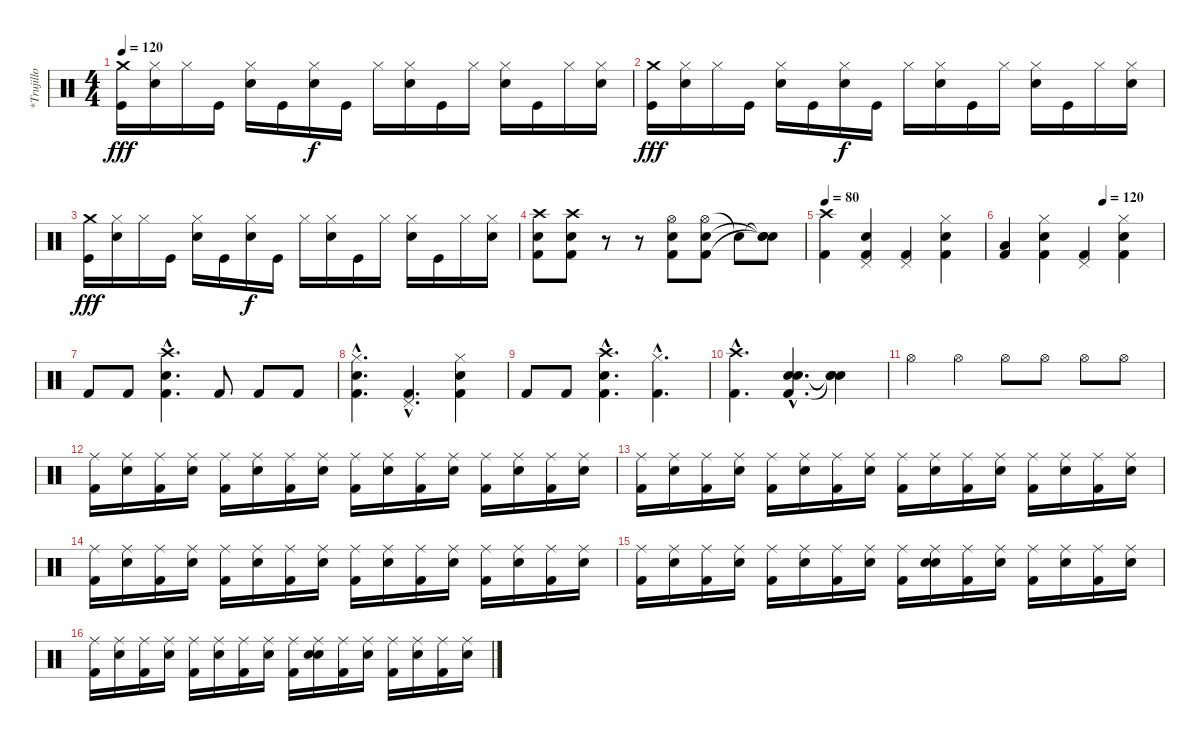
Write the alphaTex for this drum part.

\track ("*Trujillo" "*Trujillo") {instrument percussion}
\staff {score}
\articulation defaults
\ts (4 4)
\tempo 120
\clef neutral
\ks c
("Kick (hit)" "Crash medium (hit)").16{dy fff} ("Snare (hit) 2" "Hi-Hat (closed)").16 "Hi-Hat (closed)".16 "Kick (hit)".16 ("Snare (hit) 2" "Hi-Hat (closed)").16 "Kick (hit)".16 ("Snare (hit) 2" "Hi-Hat (closed)").16{dy f} "Kick (hit)".16 "Hi-Hat (closed)".16 ("Snare (hit) 2" "Hi-Hat (closed)").16 "Kick (hit)".16 "Hi-Hat (closed)".16 ("Snare (hit) 2" "Hi-Hat (closed)").16 "Kick (hit)".16 "Hi-Hat (closed)".16 ("Snare (hit) 2" "Hi-Hat (closed)").16 |
("Kick (hit)" "Crash medium (hit)").16{dy fff} ("Snare (hit) 2" "Hi-Hat (closed)").16 "Hi-Hat (closed)".16 "Kick (hit)".16 ("Snare (hit) 2" "Hi-Hat (closed)").16 "Kick (hit)".16 ("Snare (hit) 2" "Hi-Hat (closed)").16{dy f} "Kick (hit)".16 "Hi-Hat (closed)".16 ("Snare (hit) 2" "Hi-Hat (closed)").16 "Kick (hit)".16 "Hi-Hat (closed)".16 ("Snare (hit) 2" "Hi-Hat (closed)").16 "Kick (hit)".16 "Hi-Hat (closed)".16 ("Snare (hit) 2" "Hi-Hat (closed)").16 |
("Kick (hit)" "Crash medium (hit)").16{dy fff} ("Snare (hit) 2" "Hi-Hat (closed)").16 "Hi-Hat (closed)".16 "Kick (hit)".16 ("Snare (hit) 2" "Hi-Hat (closed)").16 "Kick (hit)".16 ("Snare (hit) 2" "Hi-Hat (closed)").16{dy f} "Kick (hit)".16 "Hi-Hat (closed)".16 ("Snare (hit) 2" "Hi-Hat (closed)").16 "Kick (hit)".16 "Hi-Hat (closed)".16 ("Snare (hit) 2" "Hi-Hat (closed)").16 "Kick (hit)".16 "Hi-Hat (closed)".16 ("Snare (hit) 2" "Hi-Hat (closed)").16 |
("Crash high (hit)" "Electric Snare (hit)" "Kick (hit) 2").8 ("Crash high (hit)" "Electric Snare (hit)" "Kick (hit) 2").8 r.8 r.8 ("Hi-Hat (open)" "Electric Snare (hit)" "Kick (hit) 2").8 ("Hi-Hat (open)" "Electric Snare (hit)" "Kick (hit) 2").8 "Snare (hit)"{t}.8 ("Snare (hit)"{t} "Snare (hit)"{t} "Snare (hit)"{t}).8 |
\tempo 80
("Crash high (hit)" "Kick (hit) 2").4 ("Pedal Hi-Hat (hit)" "Electric Snare (hit)" "Kick (hit) 2").4 ("Pedal Hi-Hat (hit)" "Kick (hit) 2").4 ("Hi-Hat (closed)" "Electric Snare (hit)" "Kick (hit) 2").4 |
\tempo (120 0.625)
("Low Tom (hit)" "Kick (hit) 2").4 ("Hi-Hat (closed)" "Electric Snare (hit)" "Kick (hit) 2").4 ("Pedal Hi-Hat (hit)" "Kick (hit) 2").4 ("Hi-Hat (closed)" "Electric Snare (hit)" "Kick (hit) 2").4 |
"Kick (hit) 2".8 "Kick (hit) 2".8 ("Crash high (hit)"{hac} "Electric Snare (hit)"{hac} "Kick (hit) 2"{hac}).4{d} "Kick (hit) 2".8 "Kick (hit) 2".8 "Kick (hit) 2".8 |
("Hi-Hat (closed)"{hac} "Electric Snare (hit)"{hac} "Kick (hit) 2"{hac}).4{d} ("Pedal Hi-Hat (hit)"{hac} "Kick (hit) 2"{hac}).4{d} ("Hi-Hat (closed)" "Electric Snare (hit)" "Kick (hit) 2").4 |
"Kick (hit) 2".8 "Kick (hit) 2".8 ("Crash high (hit)"{hac} "Electric Snare (hit)"{hac} "Kick (hit) 2"{hac}).4{d} ("Hi-Hat (closed)"{hac} "Kick (hit) 2"{hac}).4{d} |
("Crash high (hit)"{hac} "Kick (hit) 2"{hac}).4{d} ("Electric Snare (hit)"{hac} "Electric Snare (hit)"{hac} "Kick (hit) 2"{hac}).4{d} ("Snare (hit)"{t} "Snare (hit)"{t} "Snare (hit)"{t}).4 |
"Hi-Hat (open)".4 "Hi-Hat (open)".4 "Hi-Hat (open)".8 "Hi-Hat (open)".8 "Hi-Hat (open)".8 "Hi-Hat (open)".8 |
\section ("" "")
("Ride (middle)" "Kick (hit) 2").16 ("Ride (middle)" "Electric Snare (hit)").16 ("Ride (middle)" "Kick (hit) 2").16 ("Ride (middle)" "Electric Snare (hit)").16 ("Ride (middle)" "Kick (hit) 2").16 ("Ride (middle)" "Electric Snare (hit)").16 ("Ride (middle)" "Kick (hit) 2").16 ("Ride (middle)" "Electric Snare (hit)").16 ("Ride (middle)" "Kick (hit) 2").16 ("Ride (middle)" "Electric Snare (hit)").16 ("Ride (middle)" "Kick (hit) 2").16 ("Ride (middle)" "Electric Snare (hit)").16 ("Ride (middle)" "Kick (hit) 2").16 ("Ride (middle)" "Electric Snare (hit)").16 ("Ride (middle)" "Kick (hit) 2").16 ("Ride (middle)" "Electric Snare (hit)").16 |
("Ride (middle)" "Kick (hit) 2").16 ("Ride (middle)" "Electric Snare (hit)").16 ("Ride (middle)" "Kick (hit) 2").16 ("Ride (middle)" "Electric Snare (hit)").16 ("Ride (middle)" "Kick (hit) 2").16 ("Ride (middle)" "Electric Snare (hit)").16 ("Ride (middle)" "Kick (hit) 2").16 ("Ride (middle)" "Electric Snare (hit)").16 ("Ride (middle)" "Kick (hit) 2").16 ("Ride (middle)" "Electric Snare (hit)").16 ("Ride (middle)" "Kick (hit) 2").16 ("Ride (middle)" "Electric Snare (hit)").16 ("Ride (middle)" "Kick (hit) 2").16 ("Ride (middle)" "Electric Snare (hit)").16 ("Ride (middle)" "Kick (hit) 2").16 ("Ride (middle)" "Electric Snare (hit)").16 |
("Ride (middle)" "Kick (hit) 2").16 ("Ride (middle)" "Electric Snare (hit)").16 ("Ride (middle)" "Kick (hit) 2").16 ("Ride (middle)" "Electric Snare (hit)").16 ("Ride (middle)" "Kick (hit) 2").16 ("Ride (middle)" "Electric Snare (hit)").16 ("Ride (middle)" "Kick (hit) 2").16 ("Ride (middle)" "Electric Snare (hit)").16 ("Ride (middle)" "Kick (hit) 2").16 ("Ride (middle)" "Electric Snare (hit)").16 ("Ride (middle)" "Kick (hit) 2").16 ("Ride (middle)" "Electric Snare (hit)").16 ("Ride (middle)" "Kick (hit) 2").16 ("Ride (middle)" "Electric Snare (hit)").16 ("Ride (middle)" "Kick (hit) 2").16 ("Ride (middle)" "Electric Snare (hit)").16 |
("Ride (middle)" "Kick (hit) 2").16 ("Ride (middle)" "Electric Snare (hit)").16 ("Ride (middle)" "Kick (hit) 2").16 ("Ride (middle)" "Electric Snare (hit)").16 ("Ride (middle)" "Kick (hit) 2").16 ("Ride (middle)" "Electric Snare (hit)").16 ("Ride (middle)" "Kick (hit) 2").16 ("Ride (middle)" "Electric Snare (hit)").16 ("Ride (middle)" "Kick (hit) 2").16 ("Ride (middle)" "Snare (hit)" "Electric Snare (hit)").16 ("Ride (middle)" "Kick (hit) 2").16 ("Ride (middle)" "Electric Snare (hit)").16 ("Ride (middle)" "Kick (hit) 2").16 ("Ride (middle)" "Electric Snare (hit)").16 ("Ride (middle)" "Kick (hit) 2").16 ("Ride (middle)" "Electric Snare (hit)").16 |
("Ride (middle)" "Kick (hit) 2").16 ("Ride (middle)" "Electric Snare (hit)").16 ("Ride (middle)" "Kick (hit) 2").16 ("Ride (middle)" "Electric Snare (hit)").16 ("Ride (middle)" "Kick (hit) 2").16 ("Ride (middle)" "Electric Snare (hit)").16 ("Ride (middle)" "Kick (hit) 2").16 ("Ride (middle)" "Electric Snare (hit)").16 ("Ride (middle)" "Kick (hit) 2").16 ("Ride (middle)" "Snare (hit)" "Electric Snare (hit)").16 ("Ride (middle)" "Kick (hit) 2").16 ("Ride (middle)" "Electric Snare (hit)").16 ("Ride (middle)" "Kick (hit) 2").16 ("Ride (middle)" "Electric Snare (hit)").16 ("Ride (middle)" "Kick (hit) 2").16 ("Ride (middle)" "Electric Snare (hit)").16
